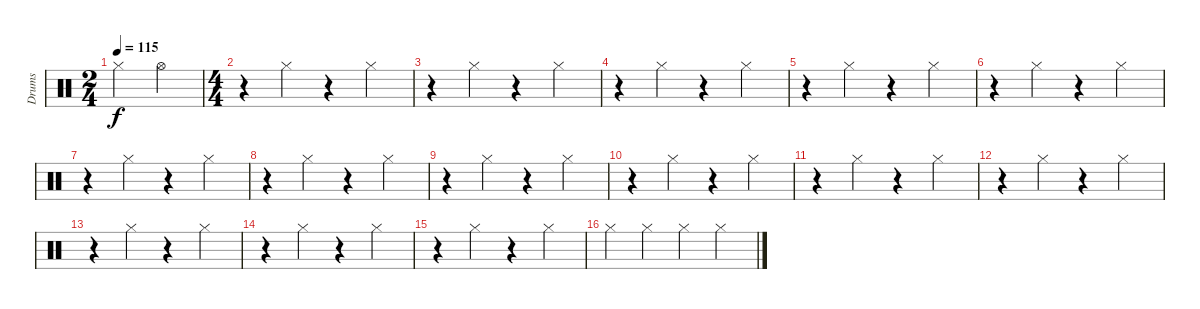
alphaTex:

\track ("Drums" "Drums") {instrument percussion}
\staff {score}
\articulation defaults
\ts (2 4)
\tempo 115
\clef neutral
\ks c "Hi-Hat (closed)".4{dy f} "Hi-Hat (open)".4
|
\ts (4 4)
r.4 "Hi-Hat (closed)".4 r.4 "Hi-Hat (closed)".4 |
r.4 "Hi-Hat (closed)".4 r.4 "Hi-Hat (closed)".4 |
r.4 "Hi-Hat (closed)".4 r.4 "Hi-Hat (closed)".4 |
r.4 "Hi-Hat (closed)".4 r.4 "Hi-Hat (closed)".4 |
r.4 "Hi-Hat (closed)".4 r.4 "Hi-Hat (closed)".4 |
r.4 "Hi-Hat (closed)".4 r.4 "Hi-Hat (closed)".4 |
r.4 "Hi-Hat (closed)".4 r.4 "Hi-Hat (closed)".4 |
r.4 "Hi-Hat (closed)".4 r.4 "Hi-Hat (closed)".4 |
r.4 "Hi-Hat (closed)".4 r.4 "Hi-Hat (closed)".4 |
r.4 "Hi-Hat (closed)".4 r.4 "Hi-Hat (closed)".4 |
r.4 "Hi-Hat (closed)".4 r.4 "Hi-Hat (closed)".4 |
r.4 "Hi-Hat (closed)".4 r.4 "Hi-Hat (closed)".4 |
r.4 "Hi-Hat (closed)".4 r.4 "Hi-Hat (closed)".4 |
r.4 "Hi-Hat (closed)".4 r.4 "Hi-Hat (closed)".4 |
"Hi-Hat (closed)".4 "Hi-Hat (closed)".4 "Hi-Hat (closed)".4 "Hi-Hat (closed)".4
